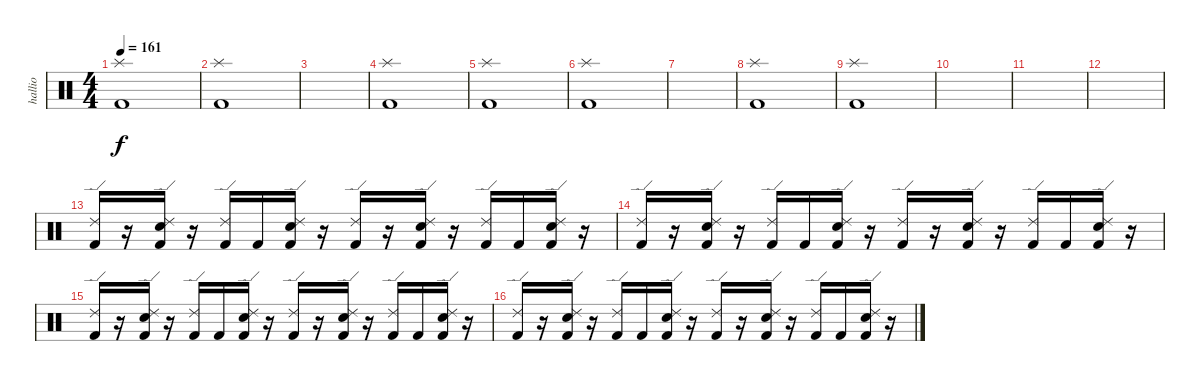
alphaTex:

\track ("hallio" "hallio") {instrument percussion}
\staff {score}
\articulation defaults
\ts (4 4)
\tempo 161
\clef neutral
\ks c
("Kick (hit) 2" "Splash (hit)").1{dy f} |
("Kick (hit) 2" "Splash (hit)").1 |
|
("Kick (hit) 2" "Splash (hit)").1 |
("Kick (hit) 2" "Splash (hit)").1 |
("Kick (hit) 2" "Splash (hit)").1 |
|
("Kick (hit) 2" "Splash (hit)").1 |
("Kick (hit) 2" "Splash (hit)").1 |
|
|
|
("Kick (hit) 2" "Ride (edge) 2").16 r.16 ("Kick (hit) 2" "Snare (hit) 2" "Ride (edge) 2").16 r.16 ("Kick (hit) 2" "Ride (edge) 2").16 "Kick (hit) 2".16 ("Kick (hit) 2" "Snare (hit) 2" "Ride (edge) 2").16 r.16 ("Kick (hit) 2" "Ride (edge) 2").16 r.16 ("Kick (hit) 2" "Snare (hit) 2" "Ride (edge) 2").16 r.16 ("Kick (hit) 2" "Ride (edge) 2").16 "Kick (hit) 2".16 ("Kick (hit) 2" "Snare (hit) 2" "Ride (edge) 2").16 r.16 |
("Kick (hit) 2" "Ride (edge) 2").16 r.16 ("Kick (hit) 2" "Snare (hit) 2" "Ride (edge) 2").16 r.16 ("Kick (hit) 2" "Ride (edge) 2").16 "Kick (hit) 2".16 ("Kick (hit) 2" "Snare (hit) 2" "Ride (edge) 2").16 r.16 ("Kick (hit) 2" "Ride (edge) 2").16 r.16 ("Kick (hit) 2" "Snare (hit) 2" "Ride (edge) 2").16 r.16 ("Kick (hit) 2" "Ride (edge) 2").16 "Kick (hit) 2".16 ("Kick (hit) 2" "Snare (hit) 2" "Ride (edge) 2").16 r.16 |
("Kick (hit) 2" "Ride (edge) 2").16 r.16 ("Kick (hit) 2" "Snare (hit) 2" "Ride (edge) 2").16 r.16 ("Kick (hit) 2" "Ride (edge) 2").16 "Kick (hit) 2".16 ("Kick (hit) 2" "Snare (hit) 2" "Ride (edge) 2").16 r.16 ("Kick (hit) 2" "Ride (edge) 2").16 r.16 ("Kick (hit) 2" "Snare (hit) 2" "Ride (edge) 2").16 r.16 ("Kick (hit) 2" "Ride (edge) 2").16 "Kick (hit) 2".16 ("Kick (hit) 2" "Snare (hit) 2" "Ride (edge) 2").16 r.16 |
("Kick (hit) 2" "Ride (edge) 2").16 r.16 ("Kick (hit) 2" "Snare (hit) 2" "Ride (edge) 2").16 r.16 ("Kick (hit) 2" "Ride (edge) 2").16 "Kick (hit) 2".16 ("Kick (hit) 2" "Snare (hit) 2" "Ride (edge) 2").16 r.16 ("Kick (hit) 2" "Ride (edge) 2").16 r.16 ("Kick (hit) 2" "Snare (hit) 2" "Ride (edge) 2").16 r.16 ("Kick (hit) 2" "Ride (edge) 2").16 "Kick (hit) 2".16 ("Kick (hit) 2" "Snare (hit) 2" "Ride (edge) 2").16 r.16
